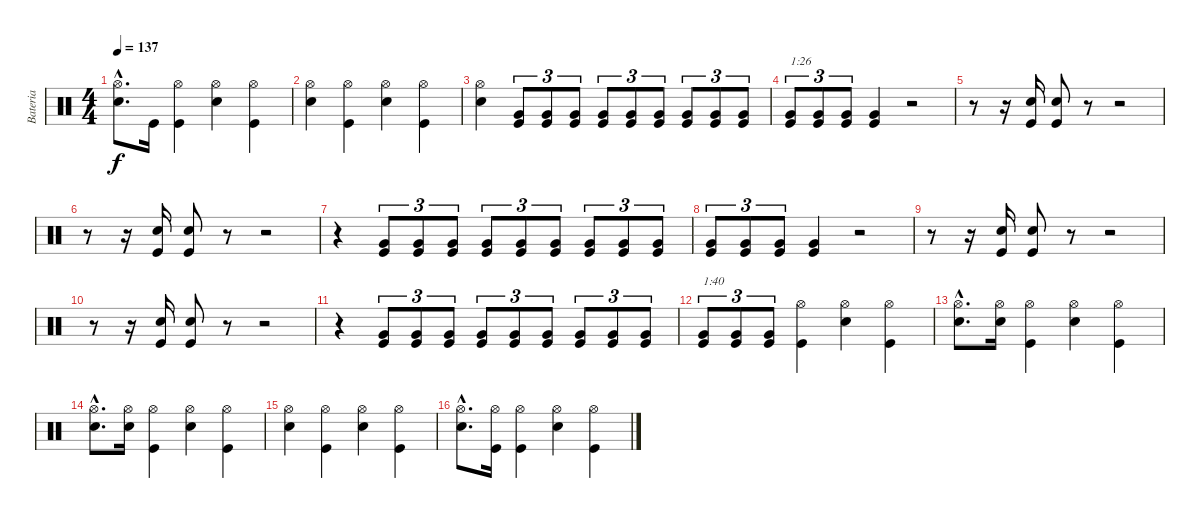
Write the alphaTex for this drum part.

\track ("Bateria" "Bateria") {instrument percussion}
\staff {score}
\articulation defaults
\ts (4 4)
\tempo 137
\clef neutral
\ks c
("Snare (hit) 2"{hac} "Hi-Hat (open)"{hac}).8{d dy f} "Kick (hit)".16 ("Kick (hit)" "Hi-Hat (open)").4 ("Snare (hit) 2" "Hi-Hat (open)").4 ("Kick (hit)" "Hi-Hat (open)").4 |
("Snare (hit) 2" "Hi-Hat (open)").4 ("Kick (hit)" "Hi-Hat (open)").4 ("Snare (hit) 2" "Hi-Hat (open)").4 ("Kick (hit)" "Hi-Hat (open)").4 |
("Snare (hit) 2" "Hi-Hat (open)").4 ("Kick (hit)" "Very Low Tom (hit)").8{tu (3 2)} ("Kick (hit)" "Very Low Tom (hit)").8{tu (3 2)} ("Kick (hit)" "Very Low Tom (hit)").8{tu (3 2)} ("Kick (hit)" "Very Low Tom (hit)").8{tu (3 2)} ("Kick (hit)" "Very Low Tom (hit)").8{tu (3 2)} ("Kick (hit)" "Very Low Tom (hit)").8{tu (3 2)} ("Kick (hit)" "Very Low Tom (hit)").8{tu (3 2)} ("Kick (hit)" "Very Low Tom (hit)").8{tu (3 2)} ("Kick (hit)" "Very Low Tom (hit)").8{tu (3 2)} |
("Kick (hit)" "Very Low Tom (hit)").8{tu (3 2) txt "1:26"} ("Kick (hit)" "Very Low Tom (hit)").8{tu (3 2)} ("Kick (hit)" "Very Low Tom (hit)").8{tu (3 2)} ("Kick (hit)" "Very Low Tom (hit)").4 r.2 |
r.8 r.16 ("Kick (hit)" "Snare (hit) 2").16 ("Kick (hit)" "Snare (hit) 2").8 r.8 r.2 |
r.8 r.16 ("Kick (hit)" "Snare (hit) 2").16 ("Kick (hit)" "Snare (hit) 2").8 r.8 r.2 |
r.4 ("Kick (hit)" "Very Low Tom (hit)").8{tu (3 2)} ("Kick (hit)" "Very Low Tom (hit)").8{tu (3 2)} ("Kick (hit)" "Very Low Tom (hit)").8{tu (3 2)} ("Kick (hit)" "Very Low Tom (hit)").8{tu (3 2)} ("Kick (hit)" "Very Low Tom (hit)").8{tu (3 2)} ("Kick (hit)" "Very Low Tom (hit)").8{tu (3 2)} ("Kick (hit)" "Very Low Tom (hit)").8{tu (3 2)} ("Kick (hit)" "Very Low Tom (hit)").8{tu (3 2)} ("Kick (hit)" "Very Low Tom (hit)").8{tu (3 2)} |
("Kick (hit)" "Very Low Tom (hit)").8{tu (3 2)} ("Kick (hit)" "Very Low Tom (hit)").8{tu (3 2)} ("Kick (hit)" "Very Low Tom (hit)").8{tu (3 2)} ("Kick (hit)" "Very Low Tom (hit)").4 r.2 |
r.8 r.16 ("Kick (hit)" "Snare (hit) 2").16 ("Kick (hit)" "Snare (hit) 2").8 r.8 r.2 |
r.8 r.16 ("Kick (hit)" "Snare (hit) 2").16 ("Kick (hit)" "Snare (hit) 2").8 r.8 r.2 |
r.4 ("Kick (hit)" "Very Low Tom (hit)").8{tu (3 2)} ("Kick (hit)" "Very Low Tom (hit)").8{tu (3 2)} ("Kick (hit)" "Very Low Tom (hit)").8{tu (3 2)} ("Kick (hit)" "Very Low Tom (hit)").8{tu (3 2)} ("Kick (hit)" "Very Low Tom (hit)").8{tu (3 2)} ("Kick (hit)" "Very Low Tom (hit)").8{tu (3 2)} ("Kick (hit)" "Very Low Tom (hit)").8{tu (3 2)} ("Kick (hit)" "Very Low Tom (hit)").8{tu (3 2)} ("Kick (hit)" "Very Low Tom (hit)").8{tu (3 2)} |
("Kick (hit)" "Very Low Tom (hit)").8{tu (3 2) txt "1:40"} ("Kick (hit)" "Very Low Tom (hit)").8{tu (3 2)} ("Kick (hit)" "Very Low Tom (hit)").8{tu (3 2)} ("Kick (hit)" "Hi-Hat (open)").4 ("Snare (hit) 2" "Hi-Hat (open)").4 ("Kick (hit)" "Hi-Hat (open)").4 |
("Snare (hit) 2"{hac} "Hi-Hat (open)"{hac}).8{d} ("Snare (hit) 2" "Hi-Hat (open)").16 ("Kick (hit)" "Hi-Hat (open)").4 ("Snare (hit) 2" "Hi-Hat (open)").4 ("Kick (hit)" "Hi-Hat (open)").4 |
("Snare (hit) 2"{hac} "Hi-Hat (open)"{hac}).8{d} ("Snare (hit) 2" "Hi-Hat (open)").16 ("Kick (hit)" "Hi-Hat (open)").4 ("Snare (hit) 2" "Hi-Hat (open)").4 ("Kick (hit)" "Hi-Hat (open)").4 |
("Snare (hit) 2" "Hi-Hat (open)").4 ("Kick (hit)" "Hi-Hat (open)").4 ("Snare (hit) 2" "Hi-Hat (open)").4 ("Kick (hit)" "Hi-Hat (open)").4 |
("Snare (hit) 2"{hac} "Hi-Hat (open)"{hac}).8{d} ("Kick (hit)" "Hi-Hat (open)").16 ("Kick (hit)" "Hi-Hat (open)").4 ("Snare (hit) 2" "Hi-Hat (open)").4 ("Kick (hit)" "Hi-Hat (open)").4
